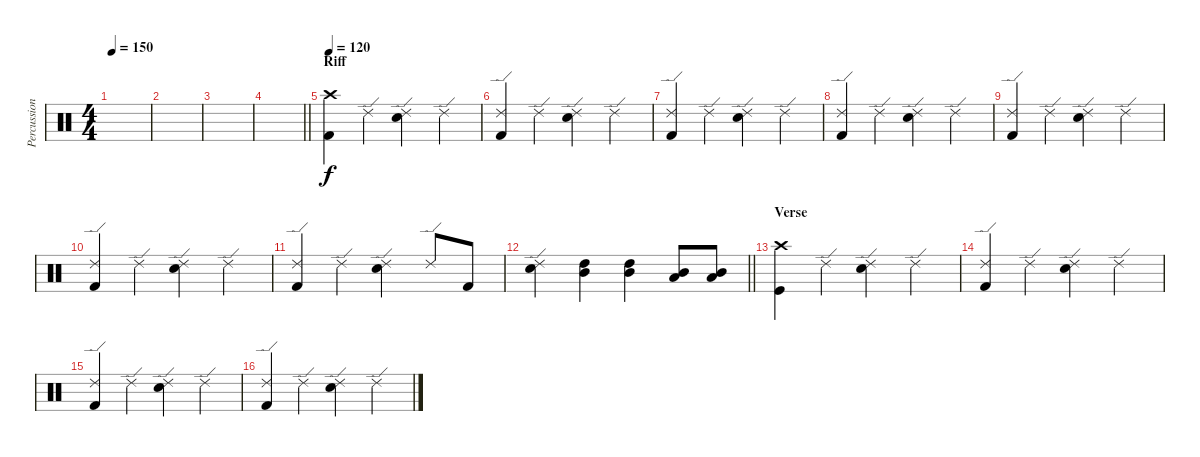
\track ("Percussion" "Percussion") {instrument percussion}
\staff {score}
\articulation defaults
\ts (4 4)
\tempo 150
\clef neutral
\ks c
|
|
|
\barLineRight lightlight
|
\section ("" "Riff")
\tempo 120
("Crash high (hit)" "Kick (hit) 2").4 "Ride (edge) 2".4 ("Ride (edge) 2" "Snare (hit) 2").4 "Ride (edge) 2".4 |
("Ride (edge) 2" "Kick (hit) 2").4 "Ride (edge) 2".4 ("Ride (edge) 2" "Snare (hit) 2").4 "Ride (edge) 2".4 |
("Ride (edge) 2" "Kick (hit) 2").4 "Ride (edge) 2".4 ("Ride (edge) 2" "Snare (hit) 2").4 "Ride (edge) 2".4 |
("Ride (edge) 2" "Kick (hit) 2").4 "Ride (edge) 2".4 ("Ride (edge) 2" "Snare (hit) 2").4 "Ride (edge) 2".4 |
("Ride (edge) 2" "Kick (hit) 2").4 "Ride (edge) 2".4 ("Ride (edge) 2" "Snare (hit) 2").4 "Ride (edge) 2".4 |
("Ride (edge) 2" "Kick (hit) 2").4 "Ride (edge) 2".4 ("Ride (edge) 2" "Snare (hit) 2").4 "Ride (edge) 2".4 |
("Ride (edge) 2" "Kick (hit) 2").4 "Ride (edge) 2".4 ("Ride (edge) 2" "Snare (hit) 2").4 "Ride (edge) 2".8 "Kick (hit) 2".8 |
\barLineRight lightlight
("Ride (edge) 2" "Snare (hit) 2").4 ("High Tom (hit)" "Mid Tom (hit)").4 ("High Tom (hit)" "Mid Tom (hit)").4 ("Mid Tom (hit)" "Low Tom (hit)").8 ("Mid Tom (hit)" "Low Tom (hit)").8 |
\section ("" "Verse")
("Crash high (hit)" "Kick (hit)").4 "Ride (edge) 2".4 ("Ride (edge) 2" "Snare (hit) 2").4 "Ride (edge) 2".4 |
("Ride (edge) 2" "Kick (hit) 2").4 "Ride (edge) 2".4 ("Ride (edge) 2" "Snare (hit) 2").4 "Ride (edge) 2".4 |
("Ride (edge) 2" "Kick (hit) 2").4 "Ride (edge) 2".4 ("Ride (edge) 2" "Snare (hit) 2").4 "Ride (edge) 2".4 |
("Ride (edge) 2" "Kick (hit) 2").4 "Ride (edge) 2".4 ("Ride (edge) 2" "Snare (hit) 2").4 "Ride (edge) 2".4
